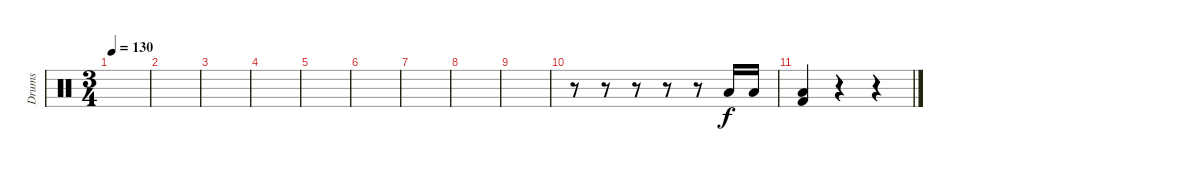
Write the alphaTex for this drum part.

\track ("Drums" "Drums") {instrument percussion}
\staff {score}
\articulation defaults
\ts (3 4)
\tempo 130
\clef neutral
\ks c
|
|
|
|
|
|
|
|
|
r.8 r.8 r.8 r.8 r.8 "Low Floor Tom (hit)".16 "Low Floor Tom (hit)".16 |
("Kick (hit) 2" "Low Floor Tom (hit)").4 r.4 r.4
